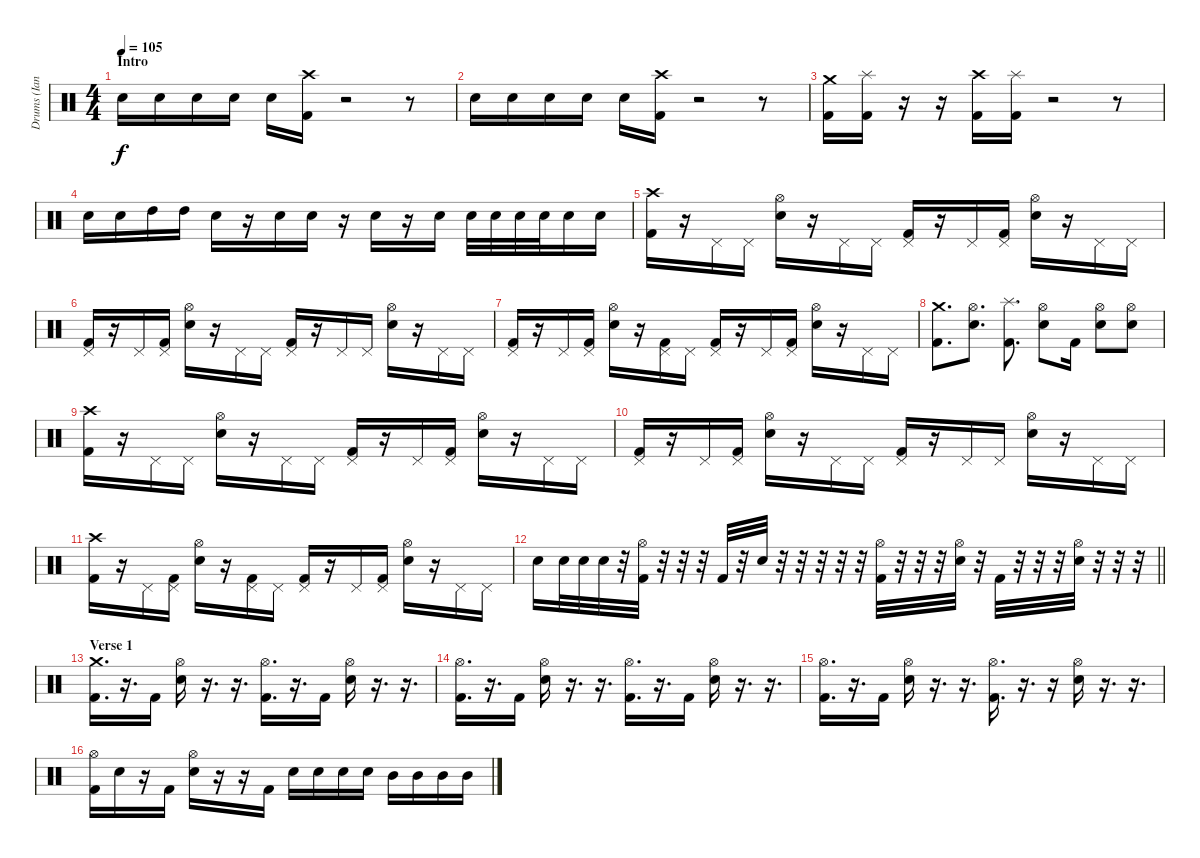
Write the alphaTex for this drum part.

\track ("Drums (Ian Paice)" "Drums (Ian") {instrument percussion}
\staff {score}
\articulation defaults
\ts (4 4)
\section ("" "Intro")
\tempo 105
\clef neutral
\ks c "Electric Snare (hit)".16{dy f} "Electric Snare (hit)".16 "Electric Snare (hit)".16 "Electric Snare (hit)".16 "Electric Snare (hit)".16
("Crash high (hit)" "Kick (hit) 2").16 r.2 r.8 |
"Electric Snare (hit)".16 "Electric Snare (hit)".16 "Electric Snare (hit)".16 "Electric Snare (hit)".16 "Electric Snare (hit)".16 ("Crash high (hit)" "Kick (hit) 2").16 r.2 r.8 |
("Crash medium (hit)" "Kick (hit) 2").16 ("Splash (hit)" "Kick (hit) 2").16 r.16 r.16 ("Crash high (hit)" "Kick (hit) 2").16 ("Splash (hit)" "Kick (hit) 2").16 r.2 r.8 |
"Electric Snare (hit)".16 "Electric Snare (hit)".16 "High Tom (hit)".16 "High Tom (hit)".16 "Electric Snare (hit)".16 r.16 "Electric Snare (hit)".16 "Electric Snare (hit)".16 r.16 "Electric Snare (hit)".16 r.16 "Electric Snare (hit)".16 "Electric Snare (hit)".32 "Electric Snare (hit)".32 "Electric Snare (hit)".32 "Electric Snare (hit)".32 "Electric Snare (hit)".16 "Electric Snare (hit)".16 |
("Crash high (hit)" "Kick (hit) 2").16 r.16 "Pedal Hi-Hat (hit)".16 "Pedal Hi-Hat (hit)".16 ("Hi-Hat (open)" "Electric Snare (hit)").16 r.16 "Pedal Hi-Hat (hit)".16 "Pedal Hi-Hat (hit)".16 ("Pedal Hi-Hat (hit)" "Kick (hit) 2").16 r.16 "Pedal Hi-Hat (hit)".16 ("Pedal Hi-Hat (hit)" "Kick (hit) 2").16 ("Hi-Hat (open)" "Electric Snare (hit)").16 r.16 "Pedal Hi-Hat (hit)".16 "Pedal Hi-Hat (hit)".16 |
("Pedal Hi-Hat (hit)" "Kick (hit) 2").16 r.16 "Pedal Hi-Hat (hit)".16 ("Pedal Hi-Hat (hit)" "Kick (hit) 2").16 ("Hi-Hat (open)" "Electric Snare (hit)").16 r.16 "Pedal Hi-Hat (hit)".16 "Pedal Hi-Hat (hit)".16 ("Pedal Hi-Hat (hit)" "Kick (hit) 2").16 r.16 "Pedal Hi-Hat (hit)".16 "Pedal Hi-Hat (hit)".16 ("Hi-Hat (open)" "Electric Snare (hit)").16 r.16 "Pedal Hi-Hat (hit)".16 "Pedal Hi-Hat (hit)".16 |
("Pedal Hi-Hat (hit)" "Kick (hit) 2").16 r.16 "Pedal Hi-Hat (hit)".16 ("Pedal Hi-Hat (hit)" "Kick (hit) 2").16 ("Hi-Hat (open)" "Electric Snare (hit)").16 r.16 ("Pedal Hi-Hat (hit)" "Kick (hit) 2").16 "Pedal Hi-Hat (hit)".16 ("Pedal Hi-Hat (hit)" "Kick (hit) 2").16 r.16 "Pedal Hi-Hat (hit)".16 ("Pedal Hi-Hat (hit)" "Kick (hit) 2").16 ("Hi-Hat (open)" "Electric Snare (hit)").16 r.16 "Pedal Hi-Hat (hit)".16 "Pedal Hi-Hat (hit)".16 |
("Crash medium (hit)" "Kick (hit) 2").8{d} ("Hi-Hat (open)" "Electric Snare (hit)").8{d} ("Splash (hit)" "Kick (hit) 2").8{d} ("Hi-Hat (open)" "Electric Snare (hit)").8 "Kick (hit) 2".16 ("Hi-Hat (open)" "Electric Snare (hit)").8 ("Hi-Hat (open)" "Electric Snare (hit)").8 |
("Crash high (hit)" "Kick (hit) 2").16 r.16 "Pedal Hi-Hat (hit)".16 "Pedal Hi-Hat (hit)".16 ("Hi-Hat (open)" "Electric Snare (hit)").16 r.16 "Pedal Hi-Hat (hit)".16 "Pedal Hi-Hat (hit)".16 ("Pedal Hi-Hat (hit)" "Kick (hit) 2").16 r.16 "Pedal Hi-Hat (hit)".16 ("Pedal Hi-Hat (hit)" "Kick (hit) 2").16 ("Hi-Hat (open)" "Electric Snare (hit)").16 r.16 "Pedal Hi-Hat (hit)".16 "Pedal Hi-Hat (hit)".16 |
("Pedal Hi-Hat (hit)" "Kick (hit) 2").16 r.16 "Pedal Hi-Hat (hit)".16 ("Pedal Hi-Hat (hit)" "Kick (hit) 2").16 ("Hi-Hat (open)" "Electric Snare (hit)").16 r.16 "Pedal Hi-Hat (hit)".16 "Pedal Hi-Hat (hit)".16 ("Pedal Hi-Hat (hit)" "Kick (hit) 2").16 r.16 "Pedal Hi-Hat (hit)".16 "Pedal Hi-Hat (hit)".16 ("Hi-Hat (open)" "Electric Snare (hit)").16 r.16 "Pedal Hi-Hat (hit)".16 "Pedal Hi-Hat (hit)".16 |
("Crash high (hit)" "Kick (hit) 2").16 r.16 "Pedal Hi-Hat (hit)".16 ("Pedal Hi-Hat (hit)" "Kick (hit) 2").16 ("Hi-Hat (open)" "Electric Snare (hit)").16 r.16 ("Pedal Hi-Hat (hit)" "Kick (hit) 2").16 "Pedal Hi-Hat (hit)".16 ("Pedal Hi-Hat (hit)" "Kick (hit) 2").16 r.16 "Pedal Hi-Hat (hit)".16 ("Pedal Hi-Hat (hit)" "Kick (hit) 2").16 ("Hi-Hat (open)" "Electric Snare (hit)").16 r.16 "Pedal Hi-Hat (hit)".16 "Pedal Hi-Hat (hit)".16 |
\barLineRight lightlight "Electric Snare (hit)".16 "Electric Snare (hit)".32 "Electric Snare (hit)".32 "Electric Snare (hit)".32
r.32 ("Hi-Hat (open)" "Kick (hit) 2").32 r.32 r.32 r.32 "Kick (hit) 2".32 r.32 "Electric Snare (hit)".32 r.32 r.32 r.32 r.32 r.32 ("Hi-Hat (open)" "Kick (hit) 2").32 r.32 r.32 r.32 ("Hi-Hat (open)" "Electric Snare (hit)").32 r.32 "Kick (hit) 2".32 r.32 r.32 r.32 ("Hi-Hat (open)" "Electric Snare (hit)").32 r.32 r.32 r.32 |
\section ("" "Verse 1")
("Crash medium (hit)" "Kick (hit) 2").16{d} r.16{d} "Kick (hit) 2".16 ("Hi-Hat (open)" "Electric Snare (hit)").16 r.16{d} r.16{d} ("Hi-Hat (open)" "Kick (hit) 2").16{d} r.16{d} "Kick (hit) 2".16 ("Hi-Hat (open)" "Electric Snare (hit)").16 r.16{d} r.16{d} |
("Hi-Hat (open)" "Kick (hit) 2").16{d} r.16{d} "Kick (hit) 2".16 ("Hi-Hat (open)" "Electric Snare (hit)").16 r.16{d} r.16{d} ("Hi-Hat (open)" "Kick (hit) 2").16{d} r.16{d} "Kick (hit) 2".16 ("Hi-Hat (open)" "Electric Snare (hit)").16 r.16{d} r.16{d} |
("Hi-Hat (open)" "Kick (hit) 2").16{d} r.16{d} "Kick (hit) 2".16 ("Hi-Hat (open)" "Electric Snare (hit)").16 r.16{d} r.16{d} ("Hi-Hat (open)" "Kick (hit) 2").16{d} r.16{d} r.16 ("Hi-Hat (open)" "Electric Snare (hit)").16 r.16{d} r.16{d} |
("Hi-Hat (open)" "Kick (hit) 2").16 "Electric Snare (hit)".16 r.16 "Kick (hit) 2".16 ("Hi-Hat (open)" "Electric Snare (hit)").16 r.16 r.16 "Kick (hit) 2".16 "Electric Snare (hit)".16 "Electric Snare (hit)".16 "Electric Snare (hit)".16 "Electric Snare (hit)".16 "Mid Tom (hit)".16 "Mid Tom (hit)".16 "Mid Tom (hit)".16 "Mid Tom (hit)".16
